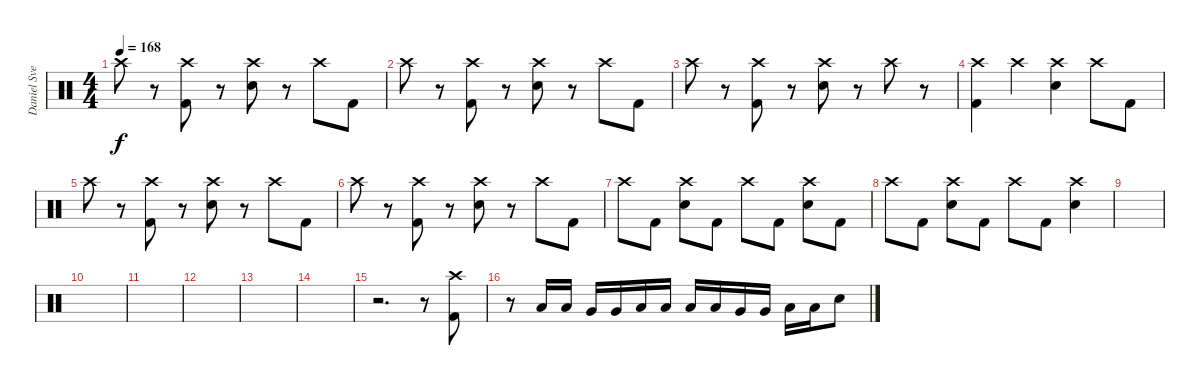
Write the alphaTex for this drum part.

\track ("Daniel Svensson" "Daniel Sve") {instrument percussion}
\staff {score}
\articulation defaults
\ts (4 4)
\tempo 168
\clef neutral
\ks c "Crash high (hit)".8{dy f}
r.8 ("Crash high (hit)" "Kick (hit) 2").8 r.8 ("Crash high (hit)" "Electric Snare (hit)").8 r.8 "Crash high (hit)".8 "Kick (hit) 2".8 |
"Crash high (hit)".8 r.8 ("Crash high (hit)" "Kick (hit) 2").8 r.8 ("Electric Snare (hit)" "Crash high (hit)").8 r.8 "Crash high (hit)".8 "Kick (hit) 2".8 |
"Crash high (hit)".8 r.8 ("Crash high (hit)" "Kick (hit) 2").8 r.8 ("Crash high (hit)" "Electric Snare (hit)").8 r.8 "Crash high (hit)".8 r.8 |
("Crash high (hit)" "Kick (hit) 2").4 "Crash high (hit)".4 ("Crash high (hit)" "Electric Snare (hit)").4 "Crash high (hit)".8 "Kick (hit) 2".8 |
"Crash high (hit)".8 r.8 ("Crash high (hit)" "Kick (hit) 2").8 r.8 ("Crash high (hit)" "Electric Snare (hit)").8 r.8 "Crash high (hit)".8 "Kick (hit) 2".8 |
"Crash high (hit)".8 r.8 ("Crash high (hit)" "Kick (hit) 2").8 r.8 ("Electric Snare (hit)" "Crash high (hit)").8 r.8 "Crash high (hit)".8 "Kick (hit) 2".8 |
"Crash high (hit)".8 "Kick (hit) 2".8 ("Crash high (hit)" "Electric Snare (hit)").8 "Kick (hit) 2".8 "Crash high (hit)".8 "Kick (hit) 2".8 ("Crash high (hit)" "Electric Snare (hit)").8 "Kick (hit) 2".8 |
"Crash high (hit)".8 "Kick (hit) 2".8 ("Crash high (hit)" "Electric Snare (hit)").8 "Kick (hit) 2".8 "Crash high (hit)".8 "Kick (hit) 2".8 ("Crash high (hit)" "Electric Snare (hit)").4 |
|
|
|
|
|
|
r.2{d} r.8 ("Crash high (hit)" "Kick (hit) 2").8 |
r.8 "Low Tom (hit)".16 "Low Tom (hit)".16 "Very Low Tom (hit)".16 "Very Low Tom (hit)".16 "Low Floor Tom (hit)".16 "Low Floor Tom (hit)".16 "Low Tom (hit)".16 "Low Tom (hit)".16 "Very Low Tom (hit)".16 "Very Low Tom (hit)".16 "Low Floor Tom (hit)".16 "Low Floor Tom (hit)".16 "Electric Snare (hit)".8
